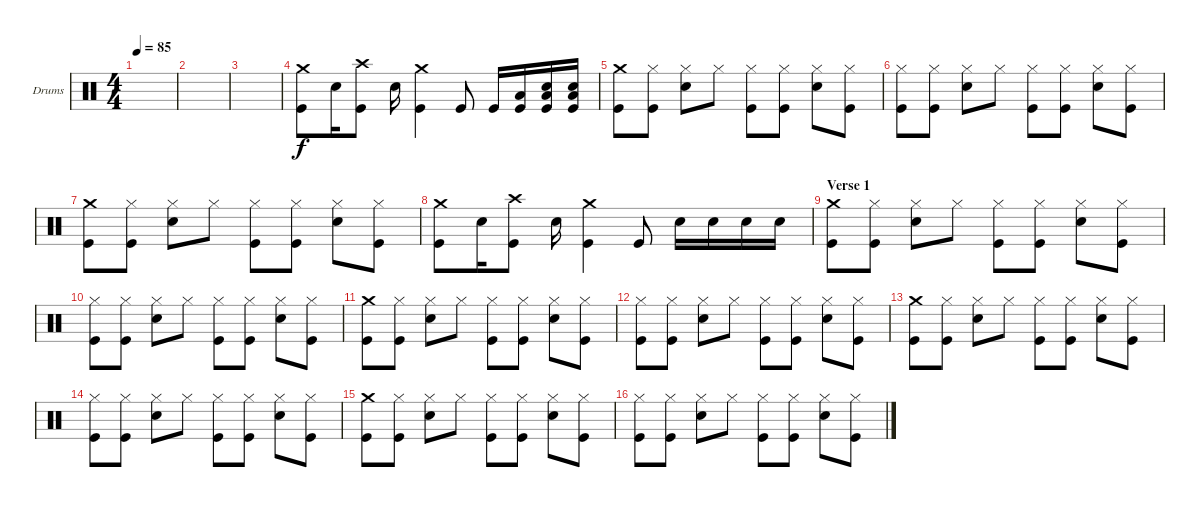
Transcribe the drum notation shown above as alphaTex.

\bracketExtendMode groupsimilarinstruments
\firstSystemTrackNameOrientation horizontal
\otherSystemsTrackNameOrientation horizontal
\track ("Drumkit" "Drums") {instrument percussion}
\staff {score}
\articulation defaults
\ts (4 4)
\tempo 85
\clef neutral
\ks c
|
|
|
("Crash medium (hit)" "Kick (hit)").8 "Snare (hit) 2".16 ("Kick (hit)" "Crash high (hit)").8 "Snare (hit) 2".16 ("Kick (hit)" "Crash medium (hit)").4 "Kick (hit)".8 "Kick (hit)".16 ("Kick (hit)" "Low Tom (hit)").16 ("Kick (hit)" "Low Tom (hit)" "Snare (hit) 2").16 ("Kick (hit)" "Low Tom (hit)" "Snare (hit) 2").16 |
("Kick (hit)" "Crash medium (hit)").8 ("Kick (hit)" "Hi-Hat (closed)").8 ("Snare (hit) 2" "Hi-Hat (closed)").8 "Hi-Hat (closed)".8 ("Kick (hit)" "Hi-Hat (closed)").8 ("Kick (hit)" "Hi-Hat (closed)").8 ("Snare (hit) 2" "Hi-Hat (closed)").8 ("Kick (hit)" "Hi-Hat (closed)").8 |
("Kick (hit)" "Hi-Hat (closed)").8 ("Kick (hit)" "Hi-Hat (closed)").8 ("Snare (hit) 2" "Hi-Hat (closed)").8 "Hi-Hat (closed)".8 ("Kick (hit)" "Hi-Hat (closed)").8 ("Kick (hit)" "Hi-Hat (closed)").8 ("Snare (hit) 2" "Hi-Hat (closed)").8 ("Kick (hit)" "Hi-Hat (closed)").8 |
("Kick (hit)" "Crash medium (hit)").8 ("Kick (hit)" "Hi-Hat (closed)").8 ("Snare (hit) 2" "Hi-Hat (closed)").8 "Hi-Hat (closed)".8 ("Kick (hit)" "Hi-Hat (closed)").8 ("Kick (hit)" "Hi-Hat (closed)").8 ("Snare (hit) 2" "Hi-Hat (closed)").8 ("Kick (hit)" "Hi-Hat (closed)").8 |
("Crash medium (hit)" "Kick (hit)").8 "Snare (hit) 2".16 ("Kick (hit)" "Crash high (hit)").8 "Snare (hit) 2".16 ("Kick (hit)" "Crash medium (hit)").4 "Kick (hit)".8 "Snare (hit) 2".16 "Snare (hit) 2".16 "Snare (hit) 2".16 "Snare (hit) 2".16 |
\section ("" "Verse 1")
("Kick (hit)" "Crash medium (hit)").8 ("Kick (hit)" "Hi-Hat (closed)").8 ("Snare (hit) 2" "Hi-Hat (closed)").8 "Hi-Hat (closed)".8 ("Kick (hit)" "Hi-Hat (closed)").8 ("Kick (hit)" "Hi-Hat (closed)").8 ("Snare (hit) 2" "Hi-Hat (closed)").8 ("Kick (hit)" "Hi-Hat (closed)").8 |
("Kick (hit)" "Hi-Hat (closed)").8 ("Kick (hit)" "Hi-Hat (closed)").8 ("Snare (hit) 2" "Hi-Hat (closed)").8 "Hi-Hat (closed)".8 ("Kick (hit)" "Hi-Hat (closed)").8 ("Kick (hit)" "Hi-Hat (closed)").8 ("Snare (hit) 2" "Hi-Hat (closed)").8 ("Kick (hit)" "Hi-Hat (closed)").8 |
("Kick (hit)" "Crash medium (hit)").8 ("Kick (hit)" "Hi-Hat (closed)").8 ("Snare (hit) 2" "Hi-Hat (closed)").8 "Hi-Hat (closed)".8 ("Kick (hit)" "Hi-Hat (closed)").8 ("Kick (hit)" "Hi-Hat (closed)").8 ("Snare (hit) 2" "Hi-Hat (closed)").8 ("Kick (hit)" "Hi-Hat (closed)").8 |
("Kick (hit)" "Hi-Hat (closed)").8 ("Kick (hit)" "Hi-Hat (closed)").8 ("Snare (hit) 2" "Hi-Hat (closed)").8 "Hi-Hat (closed)".8 ("Kick (hit)" "Hi-Hat (closed)").8 ("Kick (hit)" "Hi-Hat (closed)").8 ("Snare (hit) 2" "Hi-Hat (closed)").8 ("Kick (hit)" "Hi-Hat (closed)").8 |
("Kick (hit)" "Crash medium (hit)").8 ("Kick (hit)" "Hi-Hat (closed)").8 ("Snare (hit) 2" "Hi-Hat (closed)").8 "Hi-Hat (closed)".8 ("Kick (hit)" "Hi-Hat (closed)").8 ("Kick (hit)" "Hi-Hat (closed)").8 ("Snare (hit) 2" "Hi-Hat (closed)").8 ("Kick (hit)" "Hi-Hat (closed)").8 |
("Kick (hit)" "Hi-Hat (closed)").8 ("Kick (hit)" "Hi-Hat (closed)").8 ("Snare (hit) 2" "Hi-Hat (closed)").8 "Hi-Hat (closed)".8 ("Kick (hit)" "Hi-Hat (closed)").8 ("Kick (hit)" "Hi-Hat (closed)").8 ("Snare (hit) 2" "Hi-Hat (closed)").8 ("Kick (hit)" "Hi-Hat (closed)").8 |
("Kick (hit)" "Crash medium (hit)").8 ("Kick (hit)" "Hi-Hat (closed)").8 ("Snare (hit) 2" "Hi-Hat (closed)").8 "Hi-Hat (closed)".8 ("Kick (hit)" "Hi-Hat (closed)").8 ("Kick (hit)" "Hi-Hat (closed)").8 ("Snare (hit) 2" "Hi-Hat (closed)").8 ("Kick (hit)" "Hi-Hat (closed)").8 |
("Kick (hit)" "Hi-Hat (closed)").8 ("Kick (hit)" "Hi-Hat (closed)").8 ("Snare (hit) 2" "Hi-Hat (closed)").8 "Hi-Hat (closed)".8 ("Kick (hit)" "Hi-Hat (closed)").8 ("Kick (hit)" "Hi-Hat (closed)").8 ("Snare (hit) 2" "Hi-Hat (closed)").8 ("Kick (hit)" "Hi-Hat (closed)").8
